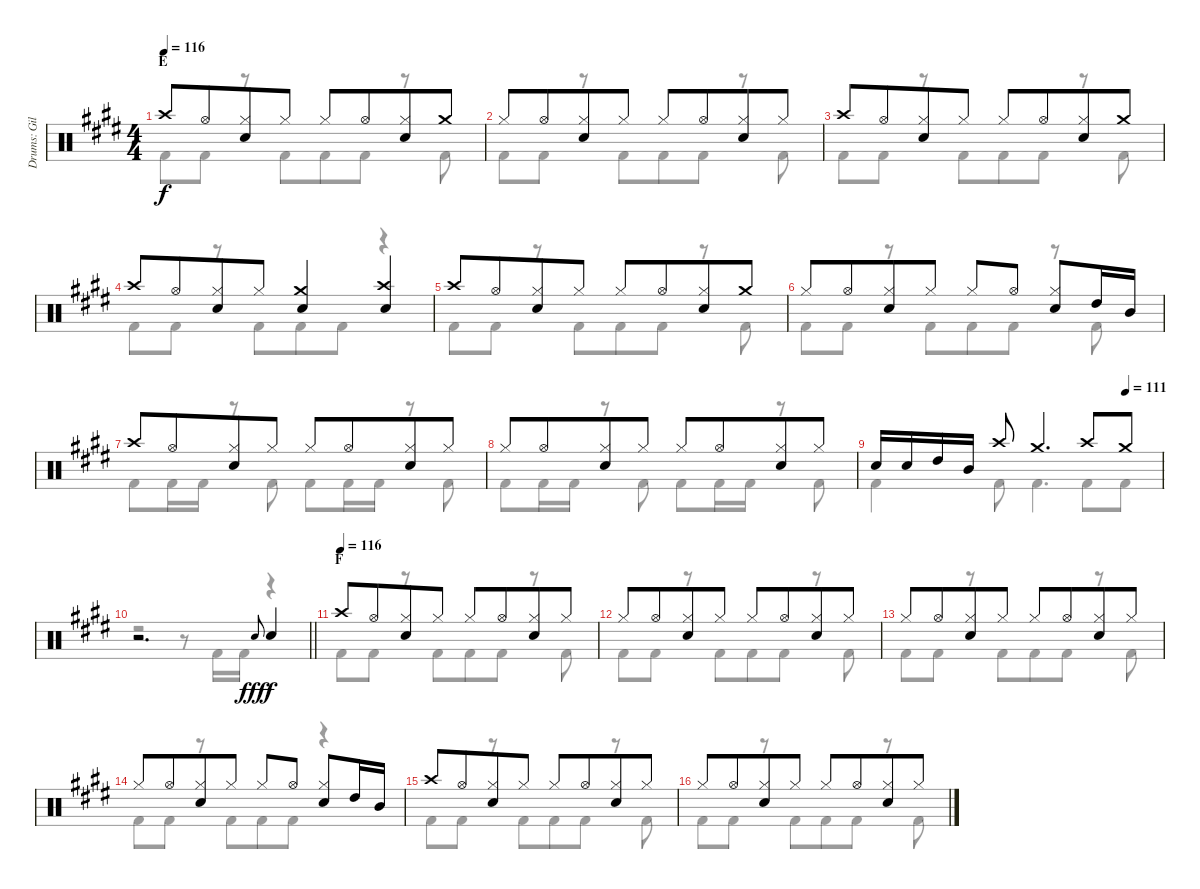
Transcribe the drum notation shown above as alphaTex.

\track ("Drums: Gil" "Drums: Gil") {instrument percussion}
\staff {score}
\articulation defaults
\voice
\ts (4 4)
\section ("" "E")
\tempo 116
\clef neutral
\ks e "Crash high (hit)".8{dy f} "Hi-Hat (open)".8{beam merge}
("Hi-Hat (closed)" "Snare (hit) 2").8 "Hi-Hat (closed)".8 "Hi-Hat (closed)".8 "Hi-Hat (open)".8{beam merge} ("Hi-Hat (closed)" "Snare (hit) 2").8 "Crash medium (hit)".8 |
"Hi-Hat (closed)".8 "Hi-Hat (open)".8{beam merge} ("Hi-Hat (closed)" "Snare (hit) 2").8 "Hi-Hat (closed)".8 "Hi-Hat (closed)".8 "Hi-Hat (open)".8{beam merge} ("Hi-Hat (closed)" "Snare (hit) 2").8 "Hi-Hat (closed)".8 |
"Crash high (hit)".8 "Hi-Hat (open)".8{beam merge} ("Hi-Hat (closed)" "Snare (hit) 2").8 "Hi-Hat (closed)".8 "Hi-Hat (closed)".8 "Hi-Hat (open)".8{beam merge} ("Hi-Hat (closed)" "Snare (hit) 2").8 "Crash medium (hit)".8 |
"Crash high (hit)".8 "Hi-Hat (open)".8{beam merge} ("Hi-Hat (closed)" "Snare (hit) 2").8 "Hi-Hat (closed)".8 ("Crash medium (hit)" "Snare (hit) 2").4 ("Crash high (hit)" "Snare (hit) 2").4 |
"Crash high (hit)".8 "Hi-Hat (open)".8{beam merge} ("Hi-Hat (closed)" "Snare (hit) 2").8 "Hi-Hat (closed)".8 "Hi-Hat (closed)".8 "Hi-Hat (open)".8{beam merge} ("Hi-Hat (closed)" "Snare (hit) 2").8 "Crash medium (hit)".8 |
"Hi-Hat (closed)".8 "Hi-Hat (open)".8{beam merge} ("Hi-Hat (closed)" "Snare (hit) 2").8 "Hi-Hat (closed)".8 "Hi-Hat (closed)".8 "Hi-Hat (open)".8 ("Hi-Hat (closed)" "Snare (hit) 2").8{beam merge} "High Tom (hit)".16 "Mid Tom (hit)".16 |
"Crash high (hit)".8 "Hi-Hat (open)".8{beam merge} ("Hi-Hat (closed)" "Snare (hit) 2").8 "Hi-Hat (closed)".8 "Hi-Hat (closed)".8 "Hi-Hat (open)".8{beam merge} ("Hi-Hat (closed)" "Snare (hit) 2").8 "Hi-Hat (closed)".8 |
"Hi-Hat (closed)".8 "Hi-Hat (open)".8{beam merge} ("Hi-Hat (closed)" "Snare (hit) 2").8 "Hi-Hat (closed)".8 "Hi-Hat (closed)".8 "Hi-Hat (open)".8{beam merge} ("Hi-Hat (closed)" "Snare (hit) 2").8 "Hi-Hat (closed)".8 |
\tempo (111 0.875)
"Snare (hit) 2".16 "Snare (hit) 2".16{beam merge} "High Tom (hit)".16 "Mid Tom (hit)".16 "Crash high (hit)".8 "Crash medium (hit)".4{d beam merge} "Crash high (hit)".8 "Crash medium (hit)".8 |
\barLineRight lightlight
r.2{d} "Electric Snare (hit)".8{gr onbeat dy fff} "Snare (hit) 2".4{dy f} |
\section ("" "F")
\tempo (116)
"Crash high (hit)".8 "Hi-Hat (open)".8{beam merge} ("Hi-Hat (closed)" "Snare (hit) 2").8 "Hi-Hat (closed)".8 "Hi-Hat (closed)".8 "Hi-Hat (open)".8{beam merge} ("Hi-Hat (closed)" "Snare (hit) 2").8 "Hi-Hat (closed)".8 |
"Hi-Hat (closed)".8 "Hi-Hat (open)".8{beam merge} ("Hi-Hat (closed)" "Snare (hit) 2").8 "Hi-Hat (closed)".8 "Hi-Hat (closed)".8 "Hi-Hat (open)".8{beam merge} ("Hi-Hat (closed)" "Snare (hit) 2").8 "Hi-Hat (closed)".8 |
"Hi-Hat (closed)".8 "Hi-Hat (open)".8{beam merge} ("Hi-Hat (closed)" "Snare (hit) 2").8 "Hi-Hat (closed)".8 "Hi-Hat (closed)".8 "Hi-Hat (open)".8{beam merge} ("Hi-Hat (closed)" "Snare (hit) 2").8 "Hi-Hat (closed)".8 |
"Hi-Hat (closed)".8 "Hi-Hat (open)".8{beam merge} ("Hi-Hat (closed)" "Snare (hit) 2").8 "Hi-Hat (closed)".8 "Hi-Hat (closed)".8 "Hi-Hat (open)".8 ("Hi-Hat (closed)" "Snare (hit) 2").8{beam merge} "High Tom (hit)".16 "Mid Tom (hit)".16 |
"Crash high (hit)".8 "Hi-Hat (open)".8{beam merge} ("Hi-Hat (closed)" "Snare (hit) 2").8 "Hi-Hat (closed)".8 "Hi-Hat (closed)".8 "Hi-Hat (open)".8{beam merge} ("Hi-Hat (closed)" "Snare (hit) 2").8 "Hi-Hat (closed)".8 |
"Hi-Hat (closed)".8 "Hi-Hat (open)".8{beam merge} ("Hi-Hat (closed)" "Snare (hit) 2").8 "Hi-Hat (closed)".8 "Hi-Hat (closed)".8 "Hi-Hat (open)".8{beam merge} ("Hi-Hat (closed)" "Snare (hit) 2").8 "Hi-Hat (closed)".8
\voice
\clef neutral
\ottava regular
\simile none
\ks e "Kick (hit) 2".8{dy f} "Kick (hit) 2".8
r.8 "Kick (hit) 2".8{beam merge} "Kick (hit) 2".8 "Kick (hit) 2".8 r.8 "Kick (hit) 2".8 |
"Kick (hit) 2".8 "Kick (hit) 2".8 r.8 "Kick (hit) 2".8{beam merge} "Kick (hit) 2".8 "Kick (hit) 2".8 r.8 "Kick (hit) 2".8 |
"Kick (hit) 2".8 "Kick (hit) 2".8 r.8 "Kick (hit) 2".8{beam merge} "Kick (hit) 2".8 "Kick (hit) 2".8 r.8 "Kick (hit) 2".8 |
"Kick (hit) 2".8 "Kick (hit) 2".8 r.8 "Kick (hit) 2".8{beam merge} "Kick (hit) 2".8 "Kick (hit) 2".8 r.4 |
"Kick (hit) 2".8 "Kick (hit) 2".8 r.8 "Kick (hit) 2".8{beam merge} "Kick (hit) 2".8 "Kick (hit) 2".8 r.8 "Kick (hit) 2".8 |
"Kick (hit) 2".8 "Kick (hit) 2".8 r.8 "Kick (hit) 2".8{beam merge} "Kick (hit) 2".8 "Kick (hit) 2".8 r.8 "Kick (hit) 2".8 |
"Kick (hit) 2".8 "Kick (hit) 2".16 "Kick (hit) 2".16 r.8 "Kick (hit) 2".8 "Kick (hit) 2".8 "Kick (hit) 2".16 "Kick (hit) 2".16 r.8 "Kick (hit) 2".8 |
"Kick (hit) 2".8 "Kick (hit) 2".16 "Kick (hit) 2".16 r.8 "Kick (hit) 2".8 "Kick (hit) 2".8 "Kick (hit) 2".16 "Kick (hit) 2".16 r.8 "Kick (hit) 2".8 |
"Kick (hit) 2".4 "Kick (hit) 2".8 "Kick (hit) 2".4{d} "Kick (hit) 2".8 "Kick (hit) 2".8 |
\barLineRight lightlight
r.2 r.8 "Kick (hit) 2".16 "Kick (hit) 2".16 r.4 |
"Kick (hit) 2".8 "Kick (hit) 2".8 r.8 "Kick (hit) 2".8{beam merge} "Kick (hit) 2".8 "Kick (hit) 2".8 r.8 "Kick (hit) 2".8 |
"Kick (hit) 2".8 "Kick (hit) 2".8 r.8 "Kick (hit) 2".8{beam merge} "Kick (hit) 2".8 "Kick (hit) 2".8 r.8 "Kick (hit) 2".8 |
"Kick (hit) 2".8 "Kick (hit) 2".8 r.8 "Kick (hit) 2".8{beam merge} "Kick (hit) 2".8 "Kick (hit) 2".8 r.8 "Kick (hit) 2".8 |
"Kick (hit) 2".8 "Kick (hit) 2".8 r.8 "Kick (hit) 2".8{beam merge} "Kick (hit) 2".8 "Kick (hit) 2".8 r.4 |
"Kick (hit) 2".8 "Kick (hit) 2".8 r.8 "Kick (hit) 2".8{beam merge} "Kick (hit) 2".8 "Kick (hit) 2".8 r.8 "Kick (hit) 2".8 |
"Kick (hit) 2".8 "Kick (hit) 2".8 r.8 "Kick (hit) 2".8{beam merge} "Kick (hit) 2".8 "Kick (hit) 2".8 r.8 "Kick (hit) 2".8
